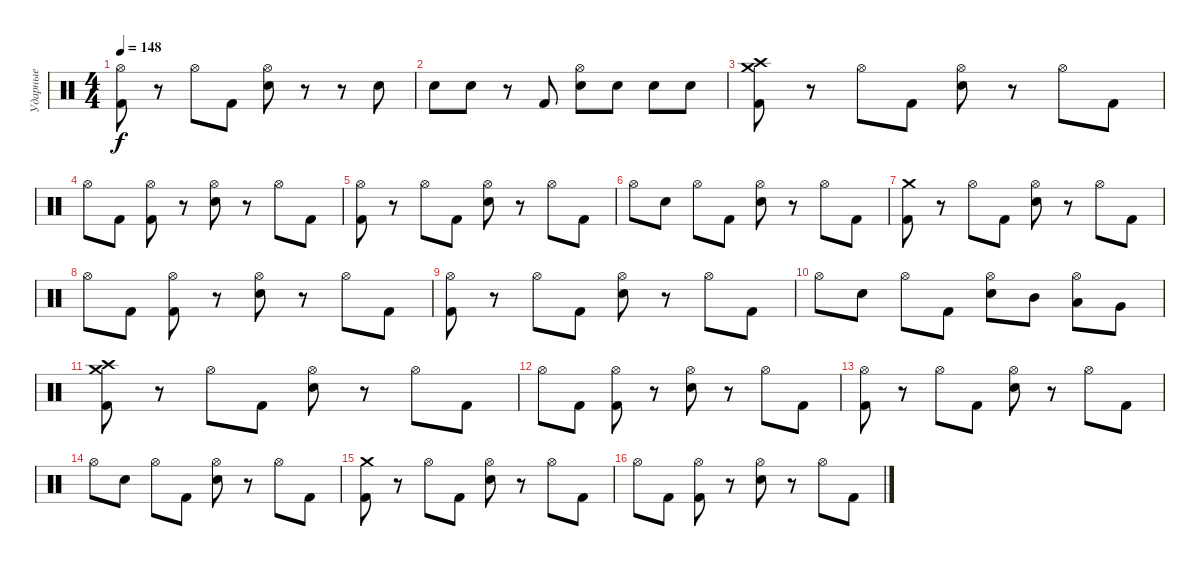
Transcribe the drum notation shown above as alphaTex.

\track ("Ударные" "Ударные") {instrument percussion}
\staff {score}
\articulation defaults
\ts (4 4)
\tempo 148
\clef neutral
\ks c
("Hi-Hat (open)" "Kick (hit) 2").8{dy f} r.8 "Hi-Hat (open)".8 "Kick (hit) 2".8 ("Hi-Hat (open)" "Electric Snare (hit)").8 r.8 r.8 "Electric Snare (hit)".8 |
"Electric Snare (hit)".8 "Electric Snare (hit)".8 r.8 "Kick (hit) 2".8 ("Hi-Hat (open)" "Electric Snare (hit)").8 "Electric Snare (hit)".8 "Electric Snare (hit)".8 "Electric Snare (hit)".8 |
("Crash medium (hit)" "Crash high (hit)" "Kick (hit) 2").8 r.8 "Hi-Hat (open)".8 "Kick (hit) 2".8 ("Hi-Hat (open)" "Electric Snare (hit)").8 r.8 "Hi-Hat (open)".8 "Kick (hit) 2".8 |
"Hi-Hat (open)".8 "Kick (hit) 2".8 ("Hi-Hat (open)" "Kick (hit) 2").8 r.8 ("Hi-Hat (open)" "Electric Snare (hit)").8 r.8 "Hi-Hat (open)".8 "Kick (hit) 2".8 |
("Hi-Hat (open)" "Kick (hit) 2").8 r.8 "Hi-Hat (open)".8 "Kick (hit) 2".8 ("Hi-Hat (open)" "Electric Snare (hit)").8 r.8 "Hi-Hat (open)".8 "Kick (hit) 2".8 |
"Hi-Hat (open)".8 "Electric Snare (hit)".8 "Hi-Hat (open)".8 "Kick (hit) 2".8 ("Hi-Hat (open)" "Electric Snare (hit)").8 r.8 "Hi-Hat (open)".8 "Kick (hit) 2".8 |
("Crash medium (hit)" "Kick (hit) 2").8 r.8 "Hi-Hat (open)".8 "Kick (hit) 2".8 ("Hi-Hat (open)" "Electric Snare (hit)").8 r.8 "Hi-Hat (open)".8 "Kick (hit) 2".8 |
"Hi-Hat (open)".8 "Kick (hit) 2".8 ("Hi-Hat (open)" "Kick (hit) 2").8 r.8 ("Hi-Hat (open)" "Electric Snare (hit)").8 r.8 "Hi-Hat (open)".8 "Kick (hit) 2".8 |
("Hi-Hat (open)" "Kick (hit) 2").8 r.8 "Hi-Hat (open)".8 "Kick (hit) 2".8 ("Hi-Hat (open)" "Electric Snare (hit)").8 r.8 "Hi-Hat (open)".8 "Kick (hit) 2".8 |
"Hi-Hat (open)".8 "Electric Snare (hit)".8 "Hi-Hat (open)".8 "Kick (hit) 2".8 ("Hi-Hat (open)" "Electric Snare (hit)").8 "Mid Tom (hit)".8 ("Hi-Hat (open)" "Low Tom (hit)").8 "Very Low Tom (hit)".8 |
("Crash medium (hit)" "Crash high (hit)" "Kick (hit) 2").8 r.8 "Hi-Hat (open)".8 "Kick (hit) 2".8 ("Hi-Hat (open)" "Electric Snare (hit)").8 r.8 "Hi-Hat (open)".8 "Kick (hit) 2".8 |
"Hi-Hat (open)".8 "Kick (hit) 2".8 ("Hi-Hat (open)" "Kick (hit) 2").8 r.8 ("Hi-Hat (open)" "Electric Snare (hit)").8 r.8 "Hi-Hat (open)".8 "Kick (hit) 2".8 |
("Hi-Hat (open)" "Kick (hit) 2").8 r.8 "Hi-Hat (open)".8 "Kick (hit) 2".8 ("Hi-Hat (open)" "Electric Snare (hit)").8 r.8 "Hi-Hat (open)".8 "Kick (hit) 2".8 |
"Hi-Hat (open)".8 "Electric Snare (hit)".8 "Hi-Hat (open)".8 "Kick (hit) 2".8 ("Hi-Hat (open)" "Electric Snare (hit)").8 r.8 "Hi-Hat (open)".8 "Kick (hit) 2".8 |
("Crash medium (hit)" "Kick (hit) 2").8 r.8 "Hi-Hat (open)".8 "Kick (hit) 2".8 ("Hi-Hat (open)" "Electric Snare (hit)").8 r.8 "Hi-Hat (open)".8 "Kick (hit) 2".8 |
"Hi-Hat (open)".8 "Kick (hit) 2".8 ("Hi-Hat (open)" "Kick (hit) 2").8 r.8 ("Hi-Hat (open)" "Electric Snare (hit)").8 r.8 "Hi-Hat (open)".8 "Kick (hit) 2".8
